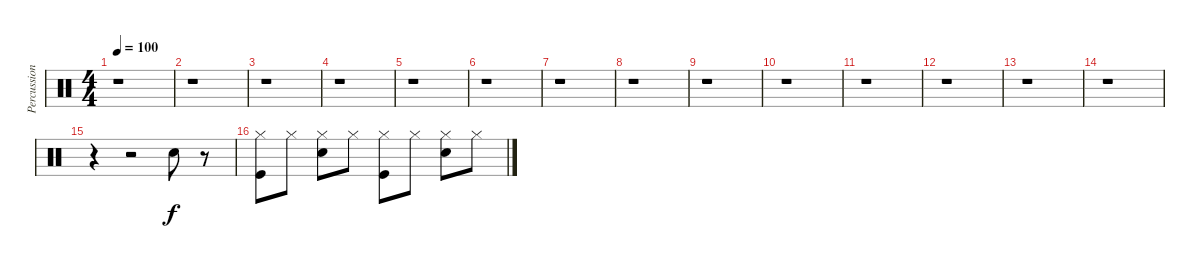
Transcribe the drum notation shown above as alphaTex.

\track ("Percussion" "Percussion") {instrument percussion}
\staff {score}
\articulation defaults
\ts (4 4)
\tempo 100
\clef neutral
\ks c
r.1{dy f} |
r.1 |
r.1 |
r.1 |
r.1 |
r.1 |
r.1 |
r.1 |
r.1 |
r.1 |
r.1 |
r.1 |
r.1 |
r.1 |
r.4 r.2 "Snare (hit) 2".8 r.8 |
("Hi-Hat (closed)" "Kick (hit)").8 "Hi-Hat (closed)".8 ("Hi-Hat (closed)" "Snare (hit) 2").8 "Hi-Hat (closed)".8 ("Hi-Hat (closed)" "Kick (hit)").8 "Hi-Hat (closed)".8 ("Hi-Hat (closed)" "Snare (hit) 2").8 "Hi-Hat (closed)".8
